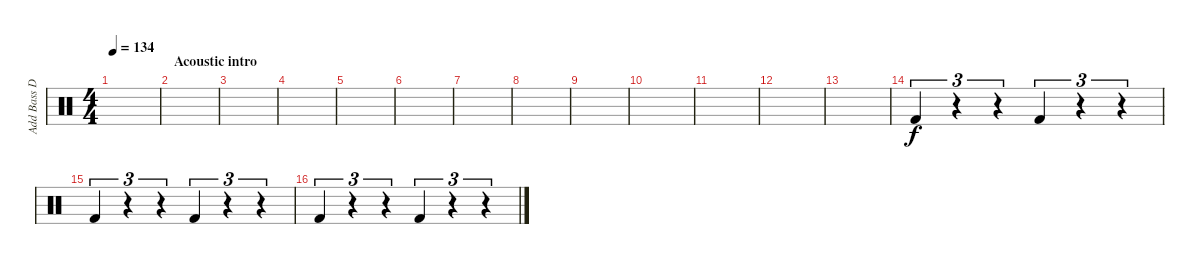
\track ("Add Bass Drum" "Add Bass D") {instrument percussion}
\staff {score}
\articulation defaults
\ts (4 4)
\tempo 134
\clef neutral
\ks c
|
\section ("" "Acoustic intro")
|
|
|
|
|
|
|
|
|
|
|
|
"Kick (hit) 2".4{tu (3 2)} r.4{tu (3 2)} r.4{tu (3 2)} "Kick (hit) 2".4{tu (3 2)} r.4{tu (3 2)} r.4{tu (3 2)} |
"Kick (hit) 2".4{tu (3 2)} r.4{tu (3 2)} r.4{tu (3 2)} "Kick (hit) 2".4{tu (3 2)} r.4{tu (3 2)} r.4{tu (3 2)} |
"Kick (hit) 2".4{tu (3 2)} r.4{tu (3 2)} r.4{tu (3 2)} "Kick (hit) 2".4{tu (3 2)} r.4{tu (3 2)} r.4{tu (3 2)}
